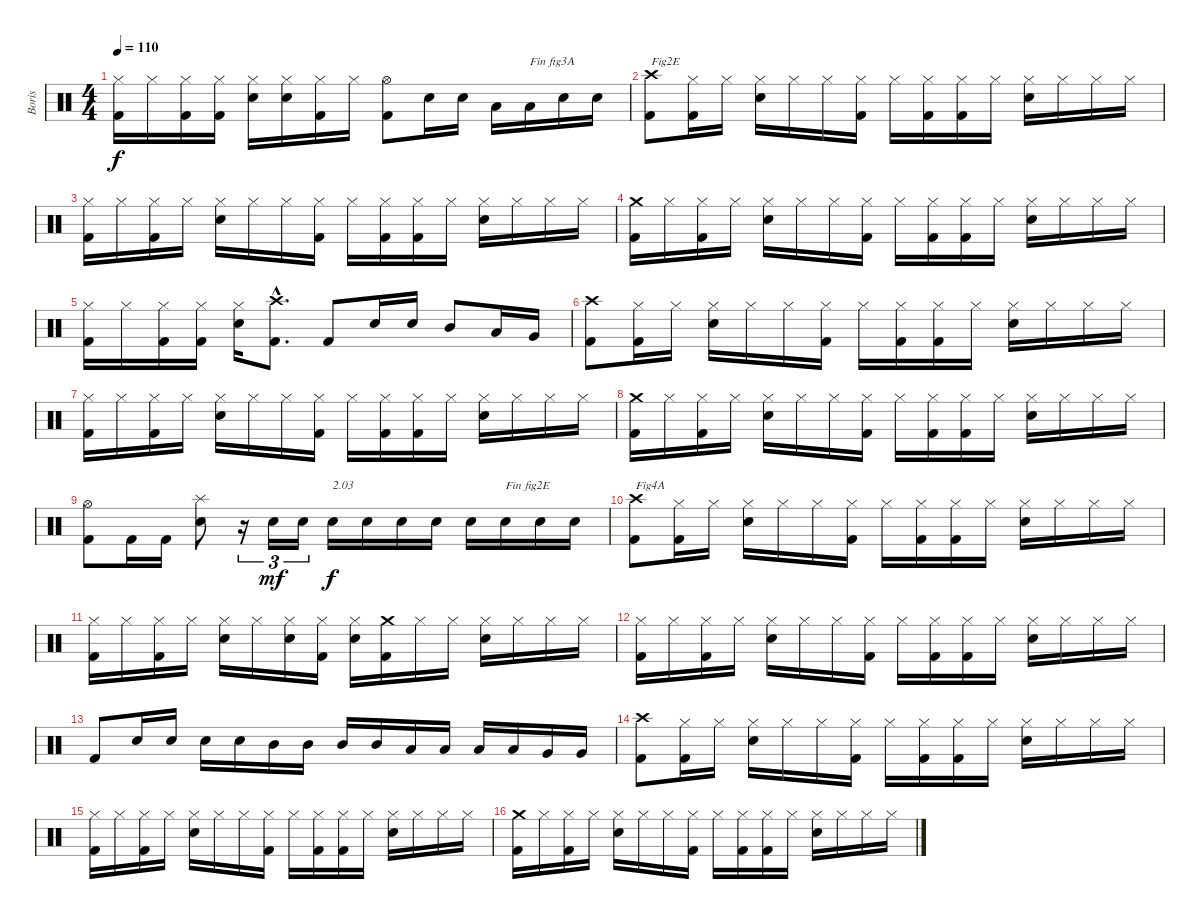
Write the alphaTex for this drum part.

\track ("Boris" "Boris") {instrument percussion}
\staff {score}
\articulation defaults
\ts (4 4)
\tempo 110
\clef neutral
\ks c
("Kick (hit) 2" "Hi-Hat (closed)").16{dy f} "Hi-Hat (closed)".16 ("Kick (hit) 2" "Hi-Hat (closed)").16 ("Kick (hit) 2" "Hi-Hat (closed)").16 ("Electric Snare (hit)" "Hi-Hat (closed)").16 ("Electric Snare (hit)" "Hi-Hat (closed)").16 ("Kick (hit) 2" "Hi-Hat (closed)").16 "Hi-Hat (closed)".16 ("Kick (hit) 2" "Hi-Hat (open)").8 "Electric Snare (hit)".16 "Electric Snare (hit)".16 "Low Tom (hit)".16 "Low Tom (hit)".16{txt "Fin fig3A"} "Electric Snare (hit)".16 "Electric Snare (hit)".16 |
("Kick (hit) 2" "Crash high (hit)").8{txt "Fig2E"} ("Kick (hit) 2" "Hi-Hat (closed)").16 "Hi-Hat (closed)".16 ("Electric Snare (hit)" "Hi-Hat (closed)").16 "Hi-Hat (closed)".16 "Hi-Hat (closed)".16 ("Kick (hit) 2" "Hi-Hat (closed)").16 "Hi-Hat (closed)".16 ("Kick (hit) 2" "Hi-Hat (closed)").16 ("Kick (hit) 2" "Hi-Hat (closed)").16 "Hi-Hat (closed)".16 ("Electric Snare (hit)" "Hi-Hat (closed)").16 "Hi-Hat (closed)".16 "Hi-Hat (closed)".16 "Hi-Hat (closed)".16 |
("Kick (hit) 2" "Hi-Hat (closed)").16 "Hi-Hat (closed)".16 ("Kick (hit) 2" "Hi-Hat (closed)").16 "Hi-Hat (closed)".16 ("Electric Snare (hit)" "Hi-Hat (closed)").16 "Hi-Hat (closed)".16 "Hi-Hat (closed)".16 ("Kick (hit) 2" "Hi-Hat (closed)").16 "Hi-Hat (closed)".16 ("Kick (hit) 2" "Hi-Hat (closed)").16 ("Kick (hit) 2" "Hi-Hat (closed)").16 "Hi-Hat (closed)".16 ("Electric Snare (hit)" "Hi-Hat (closed)").16 "Hi-Hat (closed)".16 "Hi-Hat (closed)".16 "Hi-Hat (closed)".16 |
("Kick (hit) 2" "Crash medium (hit)").16 "Hi-Hat (closed)".16 ("Kick (hit) 2" "Hi-Hat (closed)").16 "Hi-Hat (closed)".16 ("Electric Snare (hit)" "Hi-Hat (closed)").16 "Hi-Hat (closed)".16 "Hi-Hat (closed)".16 ("Kick (hit) 2" "Hi-Hat (closed)").16 "Hi-Hat (closed)".16 ("Kick (hit) 2" "Hi-Hat (closed)").16 ("Kick (hit) 2" "Hi-Hat (closed)").16 "Hi-Hat (closed)".16 ("Electric Snare (hit)" "Hi-Hat (closed)").16 "Hi-Hat (closed)".16 "Hi-Hat (closed)".16 "Hi-Hat (closed)".16 |
("Kick (hit) 2" "Hi-Hat (closed)").16 "Hi-Hat (closed)".16 ("Kick (hit) 2" "Hi-Hat (closed)").16 ("Kick (hit) 2" "Hi-Hat (closed)").16 ("Electric Snare (hit)" "Hi-Hat (closed)").16 ("Kick (hit) 2"{hac} "Crash high (hit)"{hac}).8{d} "Kick (hit) 2".8 "Electric Snare (hit)".16 "Electric Snare (hit)".16 "Mid Tom (hit)".8 "Low Tom (hit)".16 "Very Low Tom (hit)".16 |
("Kick (hit) 2" "Crash high (hit)").8 ("Kick (hit) 2" "Hi-Hat (closed)").16 "Hi-Hat (closed)".16 ("Electric Snare (hit)" "Hi-Hat (closed)").16 "Hi-Hat (closed)".16 "Hi-Hat (closed)".16 ("Kick (hit) 2" "Hi-Hat (closed)").16 "Hi-Hat (closed)".16 ("Kick (hit) 2" "Hi-Hat (closed)").16 ("Kick (hit) 2" "Hi-Hat (closed)").16 "Hi-Hat (closed)".16 ("Electric Snare (hit)" "Hi-Hat (closed)").16 "Hi-Hat (closed)".16 "Hi-Hat (closed)".16 "Hi-Hat (closed)".16 |
("Kick (hit) 2" "Hi-Hat (closed)").16 "Hi-Hat (closed)".16 ("Kick (hit) 2" "Hi-Hat (closed)").16 "Hi-Hat (closed)".16 ("Electric Snare (hit)" "Hi-Hat (closed)").16 "Hi-Hat (closed)".16 "Hi-Hat (closed)".16 ("Kick (hit) 2" "Hi-Hat (closed)").16 "Hi-Hat (closed)".16 ("Kick (hit) 2" "Hi-Hat (closed)").16 ("Kick (hit) 2" "Hi-Hat (closed)").16 "Hi-Hat (closed)".16 ("Electric Snare (hit)" "Hi-Hat (closed)").16 "Hi-Hat (closed)".16 "Hi-Hat (closed)".16 "Hi-Hat (closed)".16 |
("Kick (hit) 2" "Crash medium (hit)").16 "Hi-Hat (closed)".16 ("Kick (hit) 2" "Hi-Hat (closed)").16 "Hi-Hat (closed)".16 ("Electric Snare (hit)" "Hi-Hat (closed)").16 "Hi-Hat (closed)".16 "Hi-Hat (closed)".16 ("Kick (hit) 2" "Hi-Hat (closed)").16 "Hi-Hat (closed)".16 ("Kick (hit) 2" "Hi-Hat (closed)").16 ("Kick (hit) 2" "Hi-Hat (closed)").16 "Hi-Hat (closed)".16 ("Electric Snare (hit)" "Hi-Hat (closed)").16 "Hi-Hat (closed)".16 "Hi-Hat (closed)".16 "Hi-Hat (closed)".16 |
("Kick (hit) 2" "Hi-Hat (open)").8 "Kick (hit) 2".16 "Kick (hit) 2".16 ("Electric Snare (hit)" "Splash (hit)").8 r.16{tu (3 2)} "Electric Snare (hit)".16{tu (3 2) dy mf} "Electric Snare (hit)".16{tu (3 2)} "Electric Snare (hit)".16{txt "2.03" dy f} "Electric Snare (hit)".16 "Electric Snare (hit)".16 "Electric Snare (hit)".16 "Electric Snare (hit)".16 "Electric Snare (hit)".16{txt "Fin fig2E"} "Electric Snare (hit)".16 "Electric Snare (hit)".16 |
("Kick (hit) 2" "Crash high (hit)").8{txt "Fig4A"} ("Kick (hit) 2" "Hi-Hat (closed)").16 "Hi-Hat (closed)".16 ("Electric Snare (hit)" "Hi-Hat (closed)").16 "Hi-Hat (closed)".16 "Hi-Hat (closed)".16 ("Kick (hit) 2" "Hi-Hat (closed)").16 "Hi-Hat (closed)".16 ("Kick (hit) 2" "Hi-Hat (closed)").16 ("Kick (hit) 2" "Hi-Hat (closed)").16 "Hi-Hat (closed)".16 ("Electric Snare (hit)" "Hi-Hat (closed)").16 "Hi-Hat (closed)".16 "Hi-Hat (closed)".16 "Hi-Hat (closed)".16 |
("Kick (hit) 2" "Hi-Hat (closed)").16 "Hi-Hat (closed)".16 ("Kick (hit) 2" "Hi-Hat (closed)").16 "Hi-Hat (closed)".16 ("Electric Snare (hit)" "Hi-Hat (closed)").16 "Hi-Hat (closed)".16 ("Electric Snare (hit)" "Hi-Hat (closed)").16 ("Kick (hit) 2" "Hi-Hat (closed)").16 ("Electric Snare (hit)" "Hi-Hat (closed)").16 ("Kick (hit) 2" "Crash medium (hit)").16 "Hi-Hat (closed)".16 "Hi-Hat (closed)".16 ("Electric Snare (hit)" "Hi-Hat (closed)").16 "Hi-Hat (closed)".16 "Hi-Hat (closed)".16 "Hi-Hat (closed)".16 |
("Kick (hit) 2" "Hi-Hat (closed)").16 "Hi-Hat (closed)".16 ("Kick (hit) 2" "Hi-Hat (closed)").16 "Hi-Hat (closed)".16 ("Electric Snare (hit)" "Hi-Hat (closed)").16 "Hi-Hat (closed)".16 "Hi-Hat (closed)".16 ("Kick (hit) 2" "Hi-Hat (closed)").16 "Hi-Hat (closed)".16 ("Kick (hit) 2" "Hi-Hat (closed)").16 ("Kick (hit) 2" "Hi-Hat (closed)").16 "Hi-Hat (closed)".16 ("Electric Snare (hit)" "Hi-Hat (closed)").16 "Hi-Hat (closed)".16 "Hi-Hat (closed)".16 "Hi-Hat (closed)".16 |
"Kick (hit) 2".8 "Electric Snare (hit)".16 "Electric Snare (hit)".16 "Electric Snare (hit)".16 "Electric Snare (hit)".16 "Mid Tom (hit)".16 "Mid Tom (hit)".16 "Mid Tom (hit)".16 "Mid Tom (hit)".16 "Low Tom (hit)".16 "Low Tom (hit)".16 "Low Tom (hit)".16 "Low Tom (hit)".16 "Very Low Tom (hit)".16 "Very Low Tom (hit)".16 |
("Kick (hit) 2" "Crash high (hit)").8 ("Kick (hit) 2" "Hi-Hat (closed)").16 "Hi-Hat (closed)".16 ("Electric Snare (hit)" "Hi-Hat (closed)").16 "Hi-Hat (closed)".16 "Hi-Hat (closed)".16 ("Kick (hit) 2" "Hi-Hat (closed)").16 "Hi-Hat (closed)".16 ("Kick (hit) 2" "Hi-Hat (closed)").16 ("Kick (hit) 2" "Hi-Hat (closed)").16 "Hi-Hat (closed)".16 ("Electric Snare (hit)" "Hi-Hat (closed)").16 "Hi-Hat (closed)".16 "Hi-Hat (closed)".16 "Hi-Hat (closed)".16 |
("Kick (hit) 2" "Hi-Hat (closed)").16 "Hi-Hat (closed)".16 ("Kick (hit) 2" "Hi-Hat (closed)").16 "Hi-Hat (closed)".16 ("Electric Snare (hit)" "Hi-Hat (closed)").16 "Hi-Hat (closed)".16 "Hi-Hat (closed)".16 ("Kick (hit) 2" "Hi-Hat (closed)").16 "Hi-Hat (closed)".16 ("Kick (hit) 2" "Hi-Hat (closed)").16 ("Kick (hit) 2" "Hi-Hat (closed)").16 "Hi-Hat (closed)".16 ("Electric Snare (hit)" "Hi-Hat (closed)").16 "Hi-Hat (closed)".16 "Hi-Hat (closed)".16 "Hi-Hat (closed)".16 |
("Kick (hit) 2" "Crash medium (hit)").16 "Hi-Hat (closed)".16 ("Kick (hit) 2" "Hi-Hat (closed)").16 "Hi-Hat (closed)".16 ("Electric Snare (hit)" "Hi-Hat (closed)").16 "Hi-Hat (closed)".16 "Hi-Hat (closed)".16 ("Kick (hit) 2" "Hi-Hat (closed)").16 "Hi-Hat (closed)".16 ("Kick (hit) 2" "Hi-Hat (closed)").16 ("Kick (hit) 2" "Hi-Hat (closed)").16 "Hi-Hat (closed)".16 ("Electric Snare (hit)" "Hi-Hat (closed)").16 "Hi-Hat (closed)".16 "Hi-Hat (closed)".16 "Hi-Hat (closed)".16
